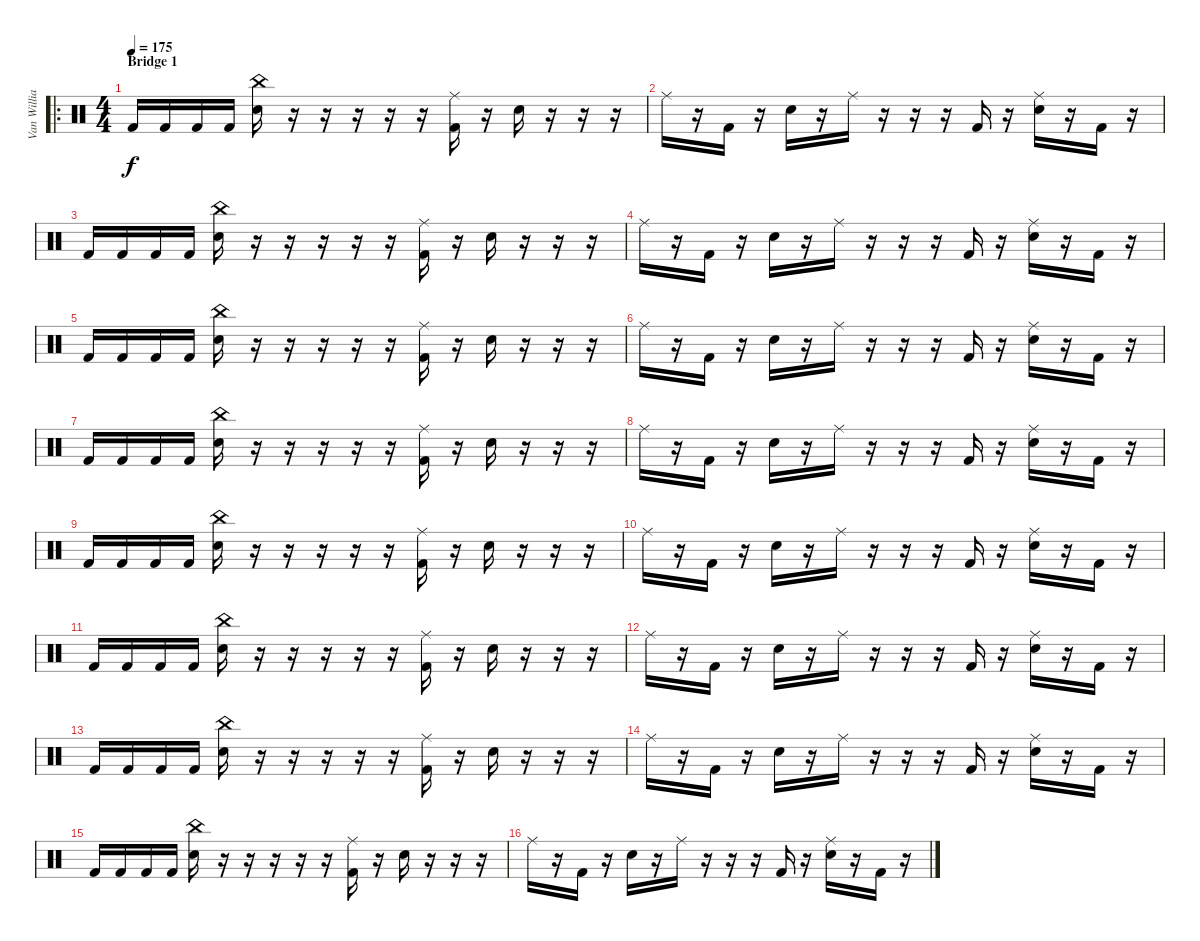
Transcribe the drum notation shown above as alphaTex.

\track ("Van Williams" "Van Willia") {instrument percussion}
\staff {score}
\articulation defaults
\ro
\ts (4 4)
\section ("" "Bridge 1")
\tempo 175
\clef neutral
\ks c "Kick (hit) 2".16{dy f} "Kick (hit) 2".16 "Kick (hit) 2".16 "Kick (hit) 2".16
("China (hit)" "Electric Snare (hit)").16 r.16 r.16 r.16 r.16 r.16 ("Ride (middle)" "Kick (hit) 2").16 r.16 "Electric Snare (hit)".16 r.16 r.16 r.16 |
"Ride (middle)".16 r.16 "Kick (hit) 2".16 r.16 "Electric Snare (hit)".16 r.16 "Ride (middle)".16 r.16 r.16 r.16 "Kick (hit) 2".16 r.16 ("Ride (middle)" "Electric Snare (hit)").16 r.16 "Kick (hit) 2".16 r.16 |
"Kick (hit) 2".16 "Kick (hit) 2".16 "Kick (hit) 2".16 "Kick (hit) 2".16 ("China (hit)" "Electric Snare (hit)").16 r.16 r.16 r.16 r.16 r.16 ("Ride (middle)" "Kick (hit) 2").16 r.16 "Electric Snare (hit)".16 r.16 r.16 r.16 |
"Ride (middle)".16 r.16 "Kick (hit) 2".16 r.16 "Electric Snare (hit)".16 r.16 "Ride (middle)".16 r.16 r.16 r.16 "Kick (hit) 2".16 r.16 ("Ride (middle)" "Electric Snare (hit)").16 r.16 "Kick (hit) 2".16 r.16 |
"Kick (hit) 2".16 "Kick (hit) 2".16 "Kick (hit) 2".16 "Kick (hit) 2".16 ("China (hit)" "Electric Snare (hit)").16 r.16 r.16 r.16 r.16 r.16 ("Ride (middle)" "Kick (hit) 2").16 r.16 "Electric Snare (hit)".16 r.16 r.16 r.16 |
"Ride (middle)".16 r.16 "Kick (hit) 2".16 r.16 "Electric Snare (hit)".16 r.16 "Ride (middle)".16 r.16 r.16 r.16 "Kick (hit) 2".16 r.16 ("Ride (middle)" "Electric Snare (hit)").16 r.16 "Kick (hit) 2".16 r.16 |
"Kick (hit) 2".16 "Kick (hit) 2".16 "Kick (hit) 2".16 "Kick (hit) 2".16 ("China (hit)" "Electric Snare (hit)").16 r.16 r.16 r.16 r.16 r.16 ("Ride (middle)" "Kick (hit) 2").16 r.16 "Electric Snare (hit)".16 r.16 r.16 r.16 |
"Ride (middle)".16 r.16 "Kick (hit) 2".16 r.16 "Electric Snare (hit)".16 r.16 "Ride (middle)".16 r.16 r.16 r.16 "Kick (hit) 2".16 r.16 ("Ride (middle)" "Electric Snare (hit)").16 r.16 "Kick (hit) 2".16 r.16 |
"Kick (hit) 2".16 "Kick (hit) 2".16 "Kick (hit) 2".16 "Kick (hit) 2".16 ("China (hit)" "Electric Snare (hit)").16 r.16 r.16 r.16 r.16 r.16 ("Ride (middle)" "Kick (hit) 2").16 r.16 "Electric Snare (hit)".16 r.16 r.16 r.16 |
"Ride (middle)".16 r.16 "Kick (hit) 2".16 r.16 "Electric Snare (hit)".16 r.16 "Ride (middle)".16 r.16 r.16 r.16 "Kick (hit) 2".16 r.16 ("Ride (middle)" "Electric Snare (hit)").16 r.16 "Kick (hit) 2".16 r.16 |
"Kick (hit) 2".16 "Kick (hit) 2".16 "Kick (hit) 2".16 "Kick (hit) 2".16 ("China (hit)" "Electric Snare (hit)").16 r.16 r.16 r.16 r.16 r.16 ("Ride (middle)" "Kick (hit) 2").16 r.16 "Electric Snare (hit)".16 r.16 r.16 r.16 |
"Ride (middle)".16 r.16 "Kick (hit) 2".16 r.16 "Electric Snare (hit)".16 r.16 "Ride (middle)".16 r.16 r.16 r.16 "Kick (hit) 2".16 r.16 ("Ride (middle)" "Electric Snare (hit)").16 r.16 "Kick (hit) 2".16 r.16 |
"Kick (hit) 2".16 "Kick (hit) 2".16 "Kick (hit) 2".16 "Kick (hit) 2".16 ("China (hit)" "Electric Snare (hit)").16 r.16 r.16 r.16 r.16 r.16 ("Ride (middle)" "Kick (hit) 2").16 r.16 "Electric Snare (hit)".16 r.16 r.16 r.16 |
"Ride (middle)".16 r.16 "Kick (hit) 2".16 r.16 "Electric Snare (hit)".16 r.16 "Ride (middle)".16 r.16 r.16 r.16 "Kick (hit) 2".16 r.16 ("Ride (middle)" "Electric Snare (hit)").16 r.16 "Kick (hit) 2".16 r.16 |
"Kick (hit) 2".16 "Kick (hit) 2".16 "Kick (hit) 2".16 "Kick (hit) 2".16 ("China (hit)" "Electric Snare (hit)").16 r.16 r.16 r.16 r.16 r.16 ("Ride (middle)" "Kick (hit) 2").16 r.16 "Electric Snare (hit)".16 r.16 r.16 r.16 |
"Ride (middle)".16 r.16 "Kick (hit) 2".16 r.16 "Electric Snare (hit)".16 r.16 "Ride (middle)".16 r.16 r.16 r.16 "Kick (hit) 2".16 r.16 ("Ride (middle)" "Electric Snare (hit)").16 r.16 "Kick (hit) 2".16 r.16
